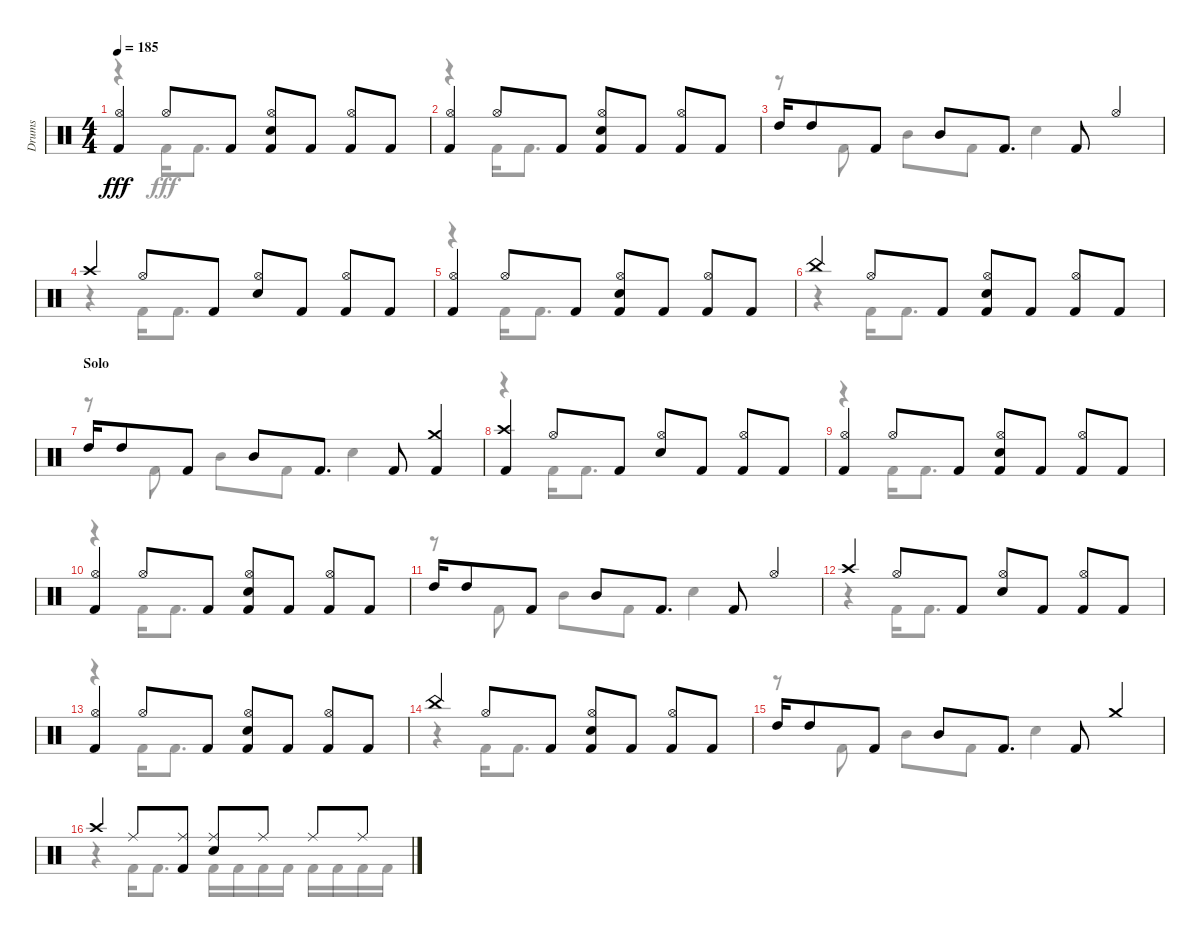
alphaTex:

\track ("Drums" "Drums") {instrument percussion}
\staff {score}
\articulation defaults
\voice
\ts (4 4)
\tempo 185
\clef neutral
\ks aminor
("Hi-Hat (open)" "Kick (hit) 2").4{dy fff} "Hi-Hat (open)".8 "Kick (hit) 2".8 ("Snare (hit) 2" "Hi-Hat (open)" "Kick (hit) 2").8 "Kick (hit) 2".8 ("Hi-Hat (open)" "Kick (hit) 2").8 "Kick (hit) 2".8 |
("Hi-Hat (open)" "Kick (hit) 2").4 "Hi-Hat (open)".8 "Kick (hit) 2".8 ("Snare (hit) 2" "Hi-Hat (open)" "Kick (hit) 2").8 "Kick (hit) 2".8 ("Hi-Hat (open)" "Kick (hit) 2").8 "Kick (hit) 2".8 |
"High Tom (hit)".16 "High Tom (hit)".8 "Kick (hit) 2".8 "Mid Tom (hit)".8 "Kick (hit) 2".8{d} "Kick (hit) 2".8 "Hi-Hat (open)".4 |
"Crash high (hit)".4 "Hi-Hat (open)".8 "Kick (hit) 2".8 ("Hi-Hat (open)" "Snare (hit) 2").8 "Kick (hit) 2".8 ("Kick (hit) 2" "Hi-Hat (open)").8 "Kick (hit) 2".8 |
("Hi-Hat (open)" "Kick (hit) 2").4 "Hi-Hat (open)".8 "Kick (hit) 2".8 ("Kick (hit) 2" "Snare (hit) 2" "Hi-Hat (open)").8 "Kick (hit) 2".8 ("Hi-Hat (open)" "Kick (hit) 2").8 "Kick (hit) 2".8 |
"China (hit)".4 "Hi-Hat (open)".8 "Kick (hit) 2".8 ("Snare (hit) 2" "Kick (hit) 2" "Hi-Hat (open)").8 "Kick (hit) 2".8 ("Kick (hit) 2" "Hi-Hat (open)").8 "Kick (hit) 2".8 |
\section ("" "Solo")
"High Tom (hit)".16 "High Tom (hit)".8 "Kick (hit) 2".8 "Mid Tom (hit)".8 "Kick (hit) 2".8{d} "Kick (hit) 2".8 ("Crash medium (hit)" "Kick (hit) 2").4 |
("Kick (hit) 2" "Crash high (hit)").4 "Hi-Hat (open)".8 "Kick (hit) 2".8 ("Snare (hit) 2" "Hi-Hat (open)").8 "Kick (hit) 2".8 ("Kick (hit) 2" "Hi-Hat (open)").8 "Kick (hit) 2".8 |
("Kick (hit) 2" "Hi-Hat (open)").4 "Hi-Hat (open)".8 "Kick (hit) 2".8 ("Snare (hit) 2" "Kick (hit) 2" "Hi-Hat (open)").8 "Kick (hit) 2".8 ("Kick (hit) 2" "Hi-Hat (open)").8 "Kick (hit) 2".8 |
("Hi-Hat (open)" "Kick (hit) 2").4 "Hi-Hat (open)".8 "Kick (hit) 2".8 ("Hi-Hat (open)" "Snare (hit) 2" "Kick (hit) 2").8 "Kick (hit) 2".8 ("Kick (hit) 2" "Hi-Hat (open)").8 "Kick (hit) 2".8 |
"High Tom (hit)".16 "High Tom (hit)".8 "Kick (hit) 2".8 "Mid Tom (hit)".8 "Kick (hit) 2".8{d} "Kick (hit) 2".8 "Hi-Hat (open)".4 |
"Crash high (hit)".4 "Hi-Hat (open)".8 "Kick (hit) 2".8 ("Snare (hit) 2" "Hi-Hat (open)").8 "Kick (hit) 2".8 ("Kick (hit) 2" "Hi-Hat (open)").8 "Kick (hit) 2".8 |
("Kick (hit) 2" "Hi-Hat (open)").4 "Hi-Hat (open)".8 "Kick (hit) 2".8 ("Hi-Hat (open)" "Snare (hit) 2" "Kick (hit) 2").8 "Kick (hit) 2".8 ("Kick (hit) 2" "Hi-Hat (open)").8 "Kick (hit) 2".8 |
"China (hit)".4 "Hi-Hat (open)".8 "Kick (hit) 2".8 ("Snare (hit) 2" "Hi-Hat (open)" "Kick (hit) 2").8 "Kick (hit) 2".8 ("Hi-Hat (open)" "Kick (hit) 2").8 "Kick (hit) 2".8 |
"High Tom (hit)".16 "High Tom (hit)".8 "Kick (hit) 2".8 "Mid Tom (hit)".8 "Kick (hit) 2".8{d} "Kick (hit) 2".8 "Crash medium (hit)".4 |
"Crash high (hit)".4 "Ride (middle)".8 ("Kick (hit) 2" "Ride (middle)").8 ("Snare (hit) 2" "Ride (middle)").8 "Ride (middle)".8 "Ride (middle)".8 "Ride (middle)".8
\voice
\clef neutral
\ottava regular
\simile none
\ks aminor
r.4{dy fff} "Kick (hit) 2".16 "Kick (hit) 2".8{d} |
r.4 "Kick (hit) 2".16 "Kick (hit) 2".8{d} |
r.8 "Kick (hit) 2".8 "Mid Tom (hit)".8 "Kick (hit) 2".8 "Snare (hit) 2".4 |
r.4 "Kick (hit) 2".16 "Kick (hit) 2".8{d} |
r.4 "Kick (hit) 2".16 "Kick (hit) 2".8{d} |
r.4 "Kick (hit) 2".16 "Kick (hit) 2".8{d} |
r.8 "Kick (hit) 2".8 "Mid Tom (hit)".8 "Kick (hit) 2".8 "Snare (hit) 2".4 |
r.4 "Kick (hit) 2".16 "Kick (hit) 2".8{d} |
r.4 "Kick (hit) 2".16 "Kick (hit) 2".8{d} |
r.4 "Kick (hit) 2".16 "Kick (hit) 2".8{d} |
r.8 "Kick (hit) 2".8 "Mid Tom (hit)".8 "Kick (hit) 2".8 "Snare (hit) 2".4 |
r.4 "Kick (hit) 2".16 "Kick (hit) 2".8{d} |
r.4 "Kick (hit) 2".16 "Kick (hit) 2".8{d} |
r.4 "Kick (hit) 2".16 "Kick (hit) 2".8{d} |
r.8 "Kick (hit) 2".8 "Mid Tom (hit)".8 "Kick (hit) 2".8 "Snare (hit) 2".4 |
r.4 "Kick (hit) 2".16 "Kick (hit) 2".8{d} "Kick (hit) 2".16 "Kick (hit) 2".16 "Kick (hit) 2".16 "Kick (hit) 2".16 "Kick (hit) 2".16 "Kick (hit) 2".16 "Kick (hit) 2".16 "Kick (hit) 2".16
